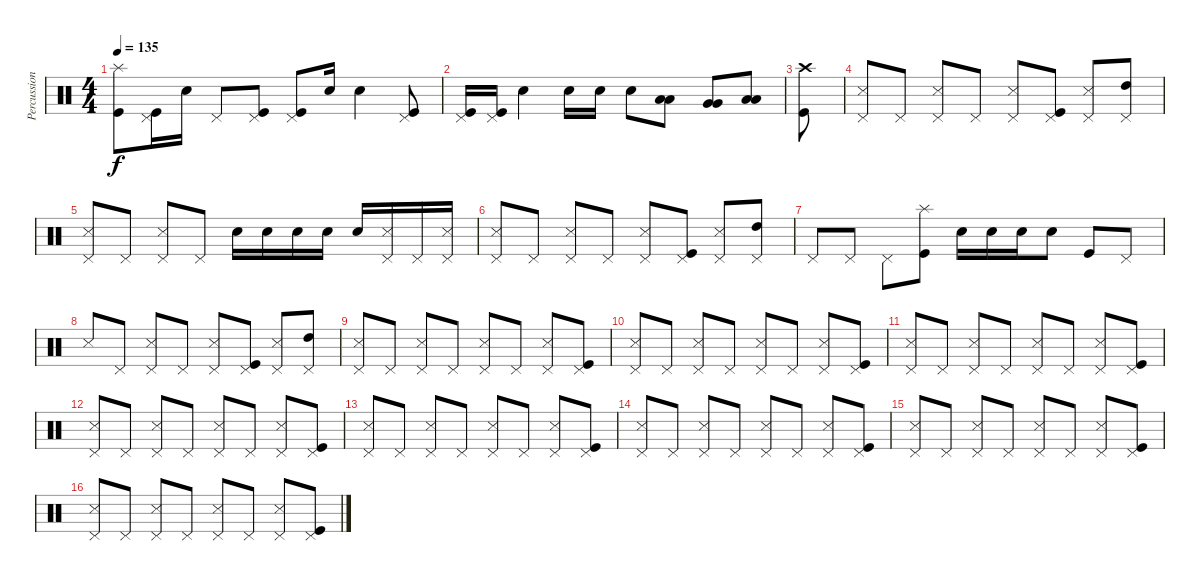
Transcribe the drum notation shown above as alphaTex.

\track ("Percussion" "Percussion") {instrument percussion}
\staff {score}
\articulation defaults
\ts (4 4)
\tempo 135
\clef neutral
\ks c
("Splash (hit)" "Kick (hit)").8{dy f} ("Pedal Hi-Hat (hit)" "Kick (hit)").16 "Electric Snare (hit)".16 "Pedal Hi-Hat (hit)".8 ("Pedal Hi-Hat (hit)" "Kick (hit)").8 ("Pedal Hi-Hat (hit)" "Kick (hit)").8 "Electric Snare (hit)".16 "Electric Snare (hit)".4 ("Pedal Hi-Hat (hit)" "Kick (hit)").8 |
("Pedal Hi-Hat (hit)" "Kick (hit)").16 ("Pedal Hi-Hat (hit)" "Kick (hit)").16 "Electric Snare (hit)".4 "Electric Snare (hit)".16 "Electric Snare (hit)".16 "Electric Snare (hit)".8 ("Low Tom (hit)" "Low Tom (hit)").8 ("Very Low Tom (hit)" "Very Low Tom (hit)").8 ("Low Floor Tom (hit)" "Low Floor Tom (hit)").8 |
("Crash high (hit)" "Kick (hit)").8 |
("Pedal Hi-Hat (hit)" "Snare (side stick) 3").8 "Pedal Hi-Hat (hit)".8 ("Pedal Hi-Hat (hit)" "Snare (side stick) 3").8 "Pedal Hi-Hat (hit)".8 ("Pedal Hi-Hat (hit)" "Snare (side stick) 3").8 ("Pedal Hi-Hat (hit)" "Kick (hit)").8 ("Pedal Hi-Hat (hit)" "Snare (side stick) 3").8 ("Pedal Hi-Hat (hit)" "High Tom (hit)").8 |
("Pedal Hi-Hat (hit)" "Snare (side stick) 3").8 "Pedal Hi-Hat (hit)".8 ("Pedal Hi-Hat (hit)" "Snare (side stick) 3").8 "Pedal Hi-Hat (hit)".8 "Electric Snare (hit)".16 "Electric Snare (hit)".16 "Electric Snare (hit)".16 "Electric Snare (hit)".16 "Electric Snare (hit)".16 ("Snare (side stick) 3" "Pedal Hi-Hat (hit)").16 "Pedal Hi-Hat (hit)".16 ("Snare (side stick) 3" "Pedal Hi-Hat (hit)").16 |
("Pedal Hi-Hat (hit)" "Snare (side stick) 3").8 "Pedal Hi-Hat (hit)".8 ("Pedal Hi-Hat (hit)" "Snare (side stick) 3").8 "Pedal Hi-Hat (hit)".8 ("Pedal Hi-Hat (hit)" "Snare (side stick) 3").8 ("Pedal Hi-Hat (hit)" "Kick (hit)").8 ("Pedal Hi-Hat (hit)" "Snare (side stick) 3").8 ("Pedal Hi-Hat (hit)" "High Tom (hit)").8 |
"Pedal Hi-Hat (hit)".8 "Pedal Hi-Hat (hit)".8 "Pedal Hi-Hat (hit)".8 ("Kick (hit)" "Splash (hit)").8 "Electric Snare (hit)".16 "Electric Snare (hit)".16 "Electric Snare (hit)".16 "Electric Snare (hit)".8 "Kick (hit)".8 "Pedal Hi-Hat (hit)".8 |
"Snare (side stick) 3".8 "Pedal Hi-Hat (hit)".8 ("Pedal Hi-Hat (hit)" "Snare (side stick) 3").8 "Pedal Hi-Hat (hit)".8 ("Pedal Hi-Hat (hit)" "Snare (side stick) 3").8 ("Pedal Hi-Hat (hit)" "Kick (hit)").8 ("Pedal Hi-Hat (hit)" "Snare (side stick) 3").8 ("Pedal Hi-Hat (hit)" "High Tom (hit)").8 |
("Snare (side stick) 3" "Pedal Hi-Hat (hit)").8 "Pedal Hi-Hat (hit)".8 ("Snare (side stick) 3" "Pedal Hi-Hat (hit)").8 "Pedal Hi-Hat (hit)".8 ("Snare (side stick) 3" "Pedal Hi-Hat (hit)").8 "Pedal Hi-Hat (hit)".8 ("Snare (side stick) 3" "Pedal Hi-Hat (hit)").8 ("Kick (hit)" "Pedal Hi-Hat (hit)").8 |
("Snare (side stick) 3" "Pedal Hi-Hat (hit)").8 "Pedal Hi-Hat (hit)".8 ("Snare (side stick) 3" "Pedal Hi-Hat (hit)").8 "Pedal Hi-Hat (hit)".8 ("Snare (side stick) 3" "Pedal Hi-Hat (hit)").8 "Pedal Hi-Hat (hit)".8 ("Snare (side stick) 3" "Pedal Hi-Hat (hit)").8 ("Kick (hit)" "Pedal Hi-Hat (hit)").8 |
("Snare (side stick) 3" "Pedal Hi-Hat (hit)").8 "Pedal Hi-Hat (hit)".8 ("Snare (side stick) 3" "Pedal Hi-Hat (hit)").8 "Pedal Hi-Hat (hit)".8 ("Snare (side stick) 3" "Pedal Hi-Hat (hit)").8 "Pedal Hi-Hat (hit)".8 ("Snare (side stick) 3" "Pedal Hi-Hat (hit)").8 ("Kick (hit)" "Pedal Hi-Hat (hit)").8 |
("Snare (side stick) 3" "Pedal Hi-Hat (hit)").8 "Pedal Hi-Hat (hit)".8 ("Snare (side stick) 3" "Pedal Hi-Hat (hit)").8 "Pedal Hi-Hat (hit)".8 ("Snare (side stick) 3" "Pedal Hi-Hat (hit)").8 "Pedal Hi-Hat (hit)".8 ("Snare (side stick) 3" "Pedal Hi-Hat (hit)").8 ("Kick (hit)" "Pedal Hi-Hat (hit)").8 |
("Snare (side stick) 3" "Pedal Hi-Hat (hit)").8 "Pedal Hi-Hat (hit)".8 ("Snare (side stick) 3" "Pedal Hi-Hat (hit)").8 "Pedal Hi-Hat (hit)".8 ("Snare (side stick) 3" "Pedal Hi-Hat (hit)").8 "Pedal Hi-Hat (hit)".8 ("Snare (side stick) 3" "Pedal Hi-Hat (hit)").8 ("Kick (hit)" "Pedal Hi-Hat (hit)").8 |
("Snare (side stick) 3" "Pedal Hi-Hat (hit)").8 "Pedal Hi-Hat (hit)".8 ("Snare (side stick) 3" "Pedal Hi-Hat (hit)").8 "Pedal Hi-Hat (hit)".8 ("Snare (side stick) 3" "Pedal Hi-Hat (hit)").8 "Pedal Hi-Hat (hit)".8 ("Snare (side stick) 3" "Pedal Hi-Hat (hit)").8 ("Kick (hit)" "Pedal Hi-Hat (hit)").8 |
("Snare (side stick) 3" "Pedal Hi-Hat (hit)").8 "Pedal Hi-Hat (hit)".8 ("Snare (side stick) 3" "Pedal Hi-Hat (hit)").8 "Pedal Hi-Hat (hit)".8 ("Snare (side stick) 3" "Pedal Hi-Hat (hit)").8 "Pedal Hi-Hat (hit)".8 ("Snare (side stick) 3" "Pedal Hi-Hat (hit)").8 ("Kick (hit)" "Pedal Hi-Hat (hit)").8 |
("Snare (side stick) 3" "Pedal Hi-Hat (hit)").8 "Pedal Hi-Hat (hit)".8 ("Snare (side stick) 3" "Pedal Hi-Hat (hit)").8 "Pedal Hi-Hat (hit)".8 ("Snare (side stick) 3" "Pedal Hi-Hat (hit)").8 "Pedal Hi-Hat (hit)".8 ("Snare (side stick) 3" "Pedal Hi-Hat (hit)").8 ("Kick (hit)" "Pedal Hi-Hat (hit)").8
